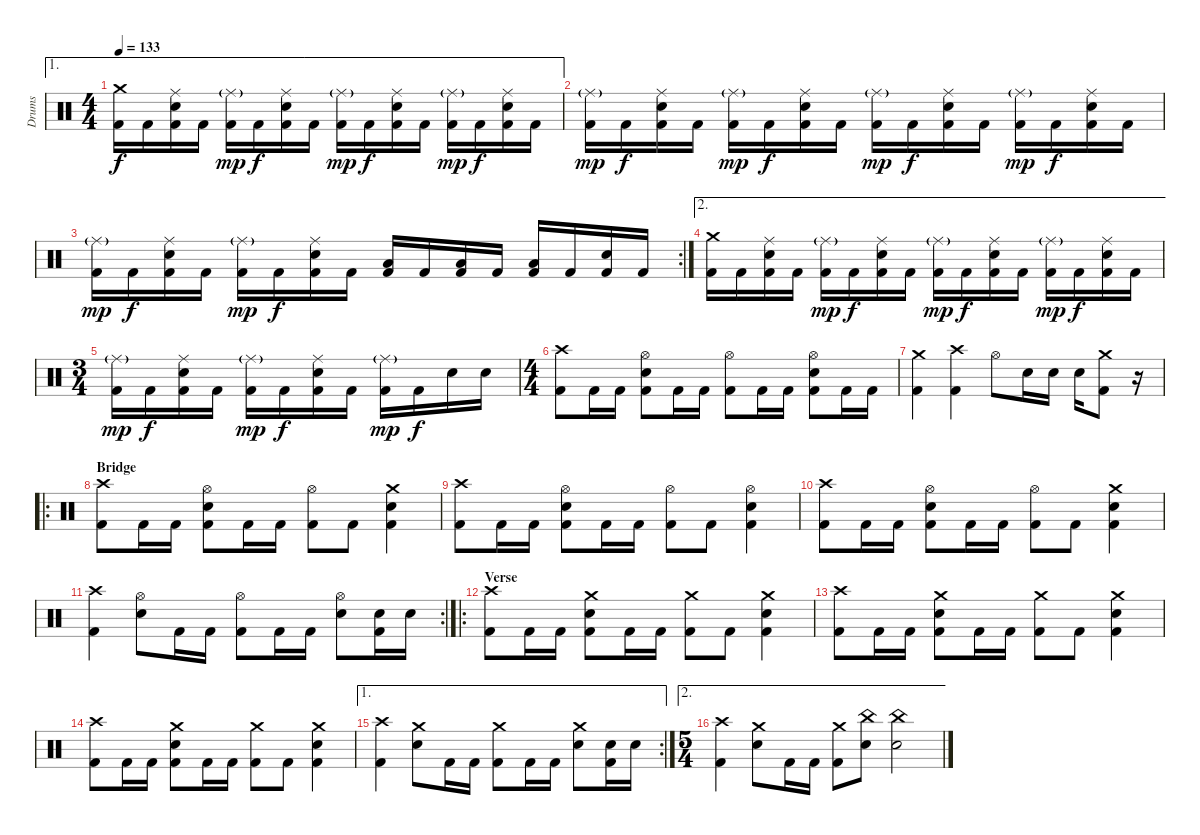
\track ("Drums" "Drums") {instrument percussion}
\staff {score}
\articulation defaults
\ae 1
\ts (4 4)
\tempo 133
\clef neutral
\ks c
("Crash medium (hit)" "Kick (hit) 2").16{dy f} "Kick (hit) 2".16 ("Ride (middle)" "Electric Snare (hit)" "Kick (hit) 2").16 "Kick (hit) 2".16 ("Ride (middle)"{g} "Kick (hit) 2").16{dy mp} "Kick (hit) 2".16{dy f} ("Ride (middle)" "Electric Snare (hit)" "Kick (hit) 2").16 "Kick (hit) 2".16 ("Ride (middle)"{g} "Kick (hit) 2").16{dy mp} "Kick (hit) 2".16{dy f} ("Ride (middle)" "Electric Snare (hit)" "Kick (hit) 2").16 "Kick (hit) 2".16 ("Ride (middle)"{g} "Kick (hit) 2").16{dy mp} "Kick (hit) 2".16{dy f} ("Ride (middle)" "Electric Snare (hit)" "Kick (hit) 2").16 "Kick (hit) 2".16 |
("Ride (middle)"{g} "Kick (hit) 2").16{dy mp} "Kick (hit) 2".16{dy f} ("Ride (middle)" "Electric Snare (hit)" "Kick (hit) 2").16 "Kick (hit) 2".16 ("Ride (middle)"{g} "Kick (hit) 2").16{dy mp} "Kick (hit) 2".16{dy f} ("Ride (middle)" "Electric Snare (hit)" "Kick (hit) 2").16 "Kick (hit) 2".16 ("Ride (middle)"{g} "Kick (hit) 2").16{dy mp} "Kick (hit) 2".16{dy f} ("Ride (middle)" "Electric Snare (hit)" "Kick (hit) 2").16 "Kick (hit) 2".16 ("Ride (middle)"{g} "Kick (hit) 2").16{dy mp} "Kick (hit) 2".16{dy f} ("Ride (middle)" "Electric Snare (hit)" "Kick (hit) 2").16 "Kick (hit) 2".16 |
\rc 2
("Ride (middle)"{g} "Kick (hit) 2").16{dy mp} "Kick (hit) 2".16{dy f} ("Ride (middle)" "Electric Snare (hit)" "Kick (hit) 2").16 "Kick (hit) 2".16 ("Ride (middle)"{g} "Kick (hit) 2").16{dy mp} "Kick (hit) 2".16{dy f} ("Ride (middle)" "Electric Snare (hit)" "Kick (hit) 2").16 "Kick (hit) 2".16 ("Low Tom (hit)" "Kick (hit) 2").16 "Kick (hit) 2".16 ("Low Tom (hit)" "Kick (hit) 2").16 "Kick (hit) 2".16 ("Low Tom (hit)" "Kick (hit) 2").16 "Kick (hit) 2".16 ("Electric Snare (hit)" "Kick (hit) 2").16 "Kick (hit) 2".16 |
\ae 2
("Crash medium (hit)" "Kick (hit) 2").16 "Kick (hit) 2".16 ("Ride (middle)" "Electric Snare (hit)" "Kick (hit) 2").16 "Kick (hit) 2".16 ("Ride (middle)"{g} "Kick (hit) 2").16{dy mp} "Kick (hit) 2".16{dy f} ("Ride (middle)" "Electric Snare (hit)" "Kick (hit) 2").16 "Kick (hit) 2".16 ("Ride (middle)"{g} "Kick (hit) 2").16{dy mp} "Kick (hit) 2".16{dy f} ("Ride (middle)" "Electric Snare (hit)" "Kick (hit) 2").16 "Kick (hit) 2".16 ("Ride (middle)"{g} "Kick (hit) 2").16{dy mp} "Kick (hit) 2".16{dy f} ("Ride (middle)" "Electric Snare (hit)" "Kick (hit) 2").16 "Kick (hit) 2".16 |
\ts (3 4)
("Ride (middle)"{g} "Kick (hit) 2").16{dy mp} "Kick (hit) 2".16{dy f} ("Ride (middle)" "Electric Snare (hit)" "Kick (hit) 2").16 "Kick (hit) 2".16 ("Ride (middle)"{g} "Kick (hit) 2").16{dy mp} "Kick (hit) 2".16{dy f} ("Ride (middle)" "Electric Snare (hit)" "Kick (hit) 2").16 "Kick (hit) 2".16 ("Ride (middle)"{g} "Kick (hit) 2").16{dy mp} "Kick (hit) 2".16{dy f} "Electric Snare (hit)".16 "Electric Snare (hit)".16 |
\ts (4 4)
("Crash high (hit)" "Kick (hit) 2").8 "Kick (hit) 2".16 "Kick (hit) 2".16 ("Hi-Hat (open)" "Electric Snare (hit)" "Kick (hit) 2").8 "Kick (hit) 2".16 "Kick (hit) 2".16 ("Hi-Hat (open)" "Kick (hit) 2").8 "Kick (hit) 2".16 "Kick (hit) 2".16 ("Hi-Hat (open)" "Electric Snare (hit)" "Kick (hit) 2").8 "Kick (hit) 2".16 "Kick (hit) 2".16 |
("Crash medium (hit)" "Kick (hit) 2").4 ("Crash high (hit)" "Kick (hit) 2").4 "Hi-Hat (open)".8 "Electric Snare (hit)".16 "Electric Snare (hit)".16 "Electric Snare (hit)".16 ("Crash medium (hit)" "Kick (hit) 2").8 r.16 |
\ro
\section ("" "Bridge")
("Crash high (hit)" "Kick (hit) 2").8 "Kick (hit) 2".16 "Kick (hit) 2".16 ("Hi-Hat (open)" "Electric Snare (hit)" "Kick (hit) 2").8 "Kick (hit) 2".16 "Kick (hit) 2".16 ("Hi-Hat (open)" "Kick (hit) 2").8 "Kick (hit) 2".8 ("Crash medium (hit)" "Electric Snare (hit)" "Kick (hit) 2").4 |
("Crash high (hit)" "Kick (hit) 2").8 "Kick (hit) 2".16 "Kick (hit) 2".16 ("Hi-Hat (open)" "Electric Snare (hit)" "Kick (hit) 2").8 "Kick (hit) 2".16 "Kick (hit) 2".16 ("Hi-Hat (open)" "Kick (hit) 2").8 "Kick (hit) 2".8 ("Hi-Hat (open)" "Electric Snare (hit)" "Kick (hit) 2").4 |
("Crash high (hit)" "Kick (hit) 2").8 "Kick (hit) 2".16 "Kick (hit) 2".16 ("Hi-Hat (open)" "Electric Snare (hit)" "Kick (hit) 2").8 "Kick (hit) 2".16 "Kick (hit) 2".16 ("Hi-Hat (open)" "Kick (hit) 2").8 "Kick (hit) 2".8 ("Crash medium (hit)" "Electric Snare (hit)" "Kick (hit) 2").4 |
\rc 2
("Crash high (hit)" "Kick (hit) 2").4 ("Hi-Hat (open)" "Electric Snare (hit)").8 "Kick (hit) 2".16 "Kick (hit) 2".16 ("Hi-Hat (open)" "Kick (hit) 2").8 "Kick (hit) 2".16 "Kick (hit) 2".16 ("Hi-Hat (open)" "Electric Snare (hit)").8 ("Electric Snare (hit)" "Kick (hit) 2").16 "Electric Snare (hit)".16 |
\ro
\section ("" "Verse")
("Crash high (hit)" "Kick (hit) 2").8 "Kick (hit) 2".16 "Kick (hit) 2".16 ("Crash medium (hit)" "Electric Snare (hit)" "Kick (hit) 2").8 "Kick (hit) 2".16 "Kick (hit) 2".16 ("Crash medium (hit)" "Kick (hit) 2").8 "Kick (hit) 2".8 ("Crash medium (hit)" "Electric Snare (hit)" "Kick (hit) 2").4 |
("Crash high (hit)" "Kick (hit) 2").8 "Kick (hit) 2".16 "Kick (hit) 2".16 ("Crash medium (hit)" "Electric Snare (hit)" "Kick (hit) 2").8 "Kick (hit) 2".16 "Kick (hit) 2".16 ("Crash medium (hit)" "Kick (hit) 2").8 "Kick (hit) 2".8 ("Crash medium (hit)" "Electric Snare (hit)" "Kick (hit) 2").4 |
("Crash high (hit)" "Kick (hit) 2").8 "Kick (hit) 2".16 "Kick (hit) 2".16 ("Crash medium (hit)" "Electric Snare (hit)" "Kick (hit) 2").8 "Kick (hit) 2".16 "Kick (hit) 2".16 ("Crash medium (hit)" "Kick (hit) 2").8 "Kick (hit) 2".8 ("Crash medium (hit)" "Electric Snare (hit)" "Kick (hit) 2").4 |
\ae 1
\rc 2
("Crash high (hit)" "Kick (hit) 2").4 ("Crash medium (hit)" "Electric Snare (hit)").8 "Kick (hit) 2".16 "Kick (hit) 2".16 ("Crash medium (hit)" "Kick (hit) 2").8 "Kick (hit) 2".16 "Kick (hit) 2".16 ("Crash medium (hit)" "Electric Snare (hit)").8 ("Electric Snare (hit)" "Kick (hit) 2").16 "Electric Snare (hit)".16 |
\ae 2
\ts (5 4)
("Crash high (hit)" "Kick (hit) 2").4 ("Crash medium (hit)" "Electric Snare (hit)").8 "Kick (hit) 2".16 "Kick (hit) 2".16 ("Crash medium (hit)" "Kick (hit) 2").8 ("China (hit)" "Electric Snare (hit)").8 ("China (hit)" "Electric Snare (hit)").2
